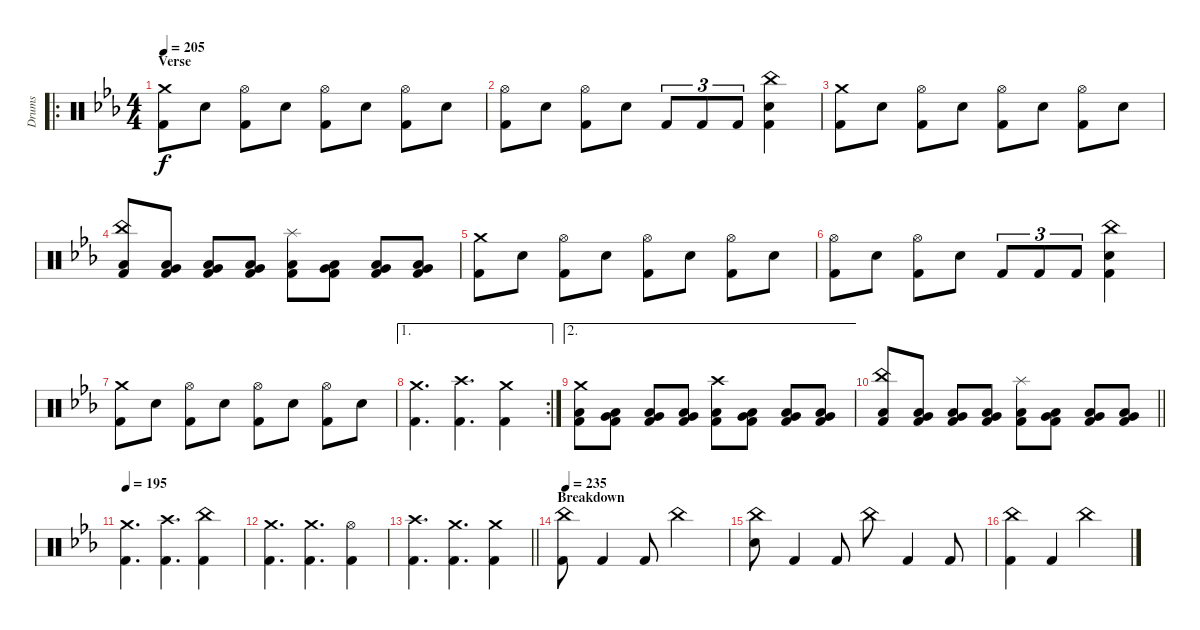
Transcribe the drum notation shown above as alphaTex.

\track ("Drums" "Drums") {instrument percussion}
\staff {score}
\articulation defaults
\ro
\ts (4 4)
\section ("" "Verse")
\tempo 205
\clef neutral
\ks cminor
("Crash medium (hit)" "Kick (hit) 2").8{dy f} "Electric Snare (hit)".8 ("Hi-Hat (open)" "Kick (hit) 2").8 "Electric Snare (hit)".8 ("Hi-Hat (open)" "Kick (hit) 2").8 "Electric Snare (hit)".8 ("Hi-Hat (open)" "Kick (hit) 2").8 "Electric Snare (hit)".8 |
("Hi-Hat (open)" "Kick (hit) 2").8 "Electric Snare (hit)".8 ("Hi-Hat (open)" "Kick (hit) 2").8 "Electric Snare (hit)".8 "Kick (hit) 2".8{tu (3 2)} "Kick (hit) 2".8{tu (3 2)} "Kick (hit) 2".8{tu (3 2)} ("China (hit)" "Electric Snare (hit)" "Kick (hit) 2").4 |
("Crash medium (hit)" "Kick (hit) 2").8 "Electric Snare (hit)".8 ("Hi-Hat (open)" "Kick (hit) 2").8 "Electric Snare (hit)".8 ("Hi-Hat (open)" "Kick (hit) 2").8 "Electric Snare (hit)".8 ("Hi-Hat (open)" "Kick (hit) 2").8 "Electric Snare (hit)".8 |
("China (hit)" "Low Floor Tom (hit)" "Kick (hit) 2").8 ("Very Low Tom (hit)" "Low Floor Tom (hit)" "Kick (hit) 2").8 ("Very Low Tom (hit)" "Low Floor Tom (hit)" "Kick (hit) 2").8 ("Very Low Tom (hit)" "Low Floor Tom (hit)" "Kick (hit) 2").8 ("Splash (hit)" "Low Floor Tom (hit)" "Kick (hit) 2").8 ("Very Low Tom (hit)" "Low Floor Tom (hit)" "Kick (hit) 2").8 ("Very Low Tom (hit)" "Low Floor Tom (hit)" "Kick (hit) 2").8 ("Very Low Tom (hit)" "Low Floor Tom (hit)" "Kick (hit) 2").8 |
("Crash medium (hit)" "Kick (hit) 2").8 "Electric Snare (hit)".8 ("Hi-Hat (open)" "Kick (hit) 2").8 "Electric Snare (hit)".8 ("Hi-Hat (open)" "Kick (hit) 2").8 "Electric Snare (hit)".8 ("Hi-Hat (open)" "Kick (hit) 2").8 "Electric Snare (hit)".8 |
("Hi-Hat (open)" "Kick (hit) 2").8 "Electric Snare (hit)".8 ("Hi-Hat (open)" "Kick (hit) 2").8 "Electric Snare (hit)".8 "Kick (hit) 2".8{tu (3 2)} "Kick (hit) 2".8{tu (3 2)} "Kick (hit) 2".8{tu (3 2)} ("China (hit)" "Electric Snare (hit)" "Kick (hit) 2").4 |
("Crash medium (hit)" "Kick (hit) 2").8 "Electric Snare (hit)".8 ("Hi-Hat (open)" "Kick (hit) 2").8 "Electric Snare (hit)".8 ("Hi-Hat (open)" "Kick (hit) 2").8 "Electric Snare (hit)".8 ("Hi-Hat (open)" "Kick (hit) 2").8 "Electric Snare (hit)".8 |
\ae 1
\rc 2
("Crash medium (hit)" "Kick (hit) 2").4{d} ("Crash high (hit)" "Kick (hit) 2").4{d} ("Crash medium (hit)" "Kick (hit) 2").4 |
\ae 2
("Crash medium (hit)" "Low Floor Tom (hit)" "Kick (hit) 2").8 ("Very Low Tom (hit)" "Low Floor Tom (hit)" "Kick (hit) 2").8 ("Very Low Tom (hit)" "Low Floor Tom (hit)" "Kick (hit) 2").8 ("Very Low Tom (hit)" "Low Floor Tom (hit)" "Kick (hit) 2").8 ("Crash high (hit)" "Low Floor Tom (hit)" "Kick (hit) 2").8 ("Very Low Tom (hit)" "Low Floor Tom (hit)" "Kick (hit) 2").8 ("Very Low Tom (hit)" "Low Floor Tom (hit)" "Kick (hit) 2").8 ("Very Low Tom (hit)" "Low Floor Tom (hit)" "Kick (hit) 2").8 |
\barLineRight lightlight
("China (hit)" "Low Floor Tom (hit)" "Kick (hit) 2").8 ("Very Low Tom (hit)" "Low Floor Tom (hit)" "Kick (hit) 2").8 ("Very Low Tom (hit)" "Low Floor Tom (hit)" "Kick (hit) 2").8 ("Very Low Tom (hit)" "Low Floor Tom (hit)" "Kick (hit) 2").8 ("Splash (hit)" "Low Floor Tom (hit)" "Kick (hit) 2").8 ("Very Low Tom (hit)" "Low Floor Tom (hit)" "Kick (hit) 2").8 ("Very Low Tom (hit)" "Low Floor Tom (hit)" "Kick (hit) 2").8 ("Very Low Tom (hit)" "Low Floor Tom (hit)" "Kick (hit) 2").8 |
\tempo 195
("Crash medium (hit)" "Kick (hit) 2").4{d} ("Crash high (hit)" "Kick (hit) 2").4{d} ("China (hit)" "Kick (hit) 2").4 |
("Crash medium (hit)" "Kick (hit) 2").4{d} ("Crash medium (hit)" "Kick (hit) 2").4{d} ("Hi-Hat (open)" "Kick (hit) 2").4 |
\barLineRight lightlight
("Crash high (hit)" "Kick (hit) 2").4{d} ("Crash medium (hit)" "Kick (hit) 2").4{d} ("Crash medium (hit)" "Kick (hit) 2").4 |
\section ("" "Breakdown")
\tempo 235
("China (hit)" "Kick (hit) 2").8 "Kick (hit) 2".4 "Kick (hit) 2".8 "China (hit)".2 |
("China (hit)" "Electric Snare (hit)").8 "Kick (hit) 2".4 "Kick (hit) 2".8 "China (hit)".8 "Kick (hit) 2".4 "Kick (hit) 2".8 |
("China (hit)" "Kick (hit) 2").4 "Kick (hit) 2".4 "China (hit)".2
